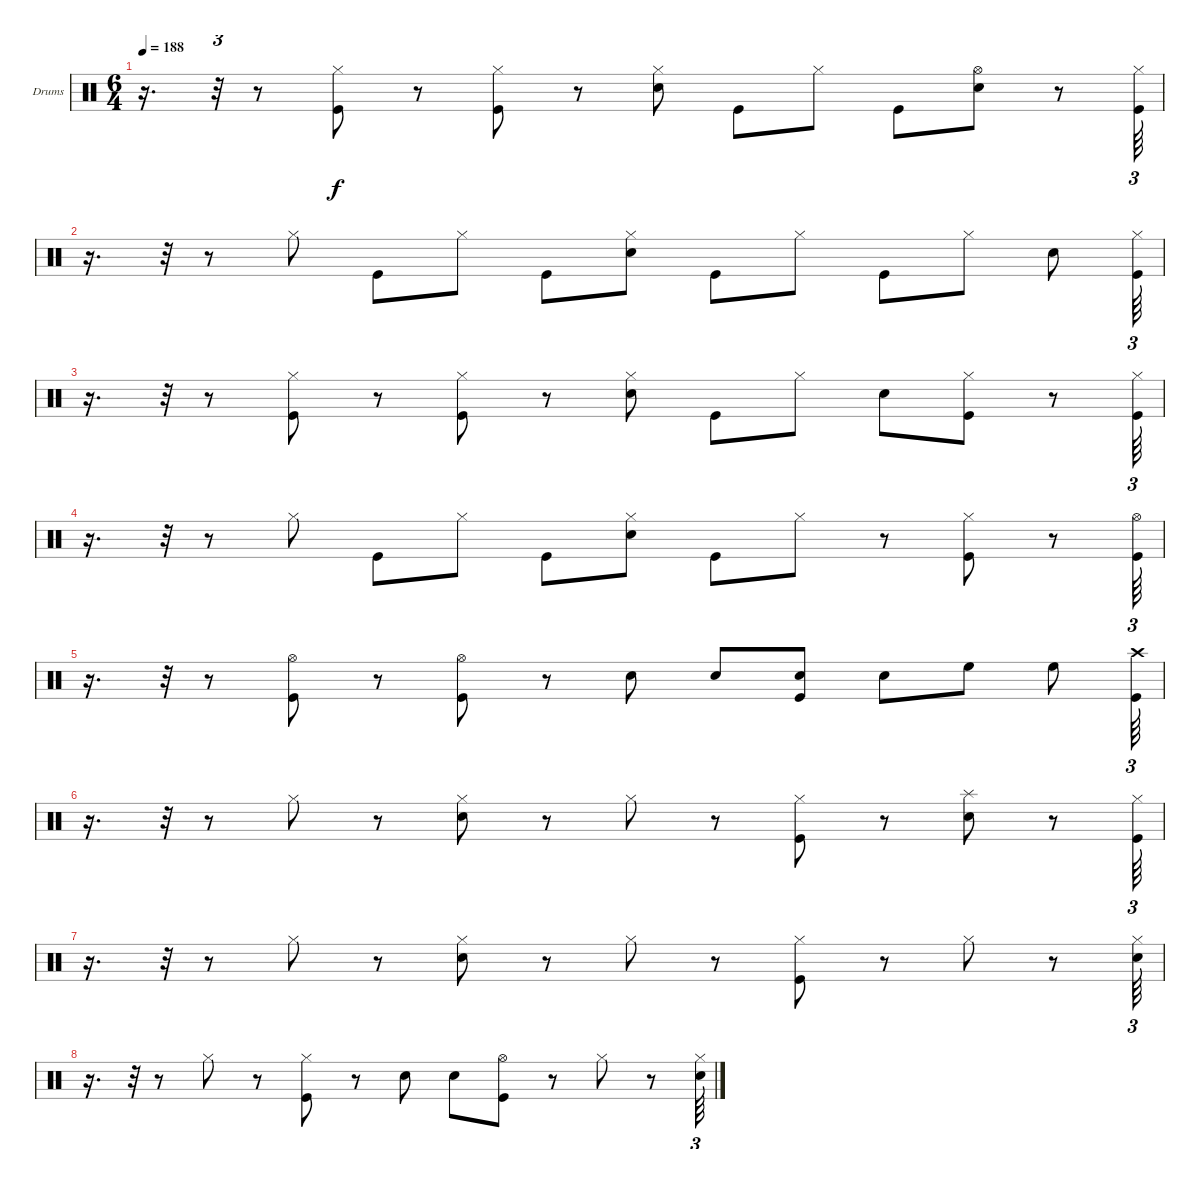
\bracketExtendMode groupsimilarinstruments
\firstSystemTrackNameOrientation horizontal
\otherSystemsTrackNameOrientation horizontal
\track ("Drumkit" "Drums") {instrument percussion}
\staff {score}
\articulation defaults
\ts (6 4)
\tempo 188
\clef neutral
\ks c
r.16{d dy f} r.32{tu (3 2)} r.8 ("Kick (hit)" "Hi-Hat (closed)").8 r.8 ("Kick (hit)" "Hi-Hat (closed)").8 r.8 ("Snare (hit) 2" "Hi-Hat (closed)").8 "Kick (hit)".8 "Hi-Hat (closed)".8 "Kick (hit)".8 ("Snare (hit) 2" "Hi-Hat (open)").8 r.8 ("Kick (hit)" "Hi-Hat (closed)").64{tu (3 2)} |
r.16{d} r.32{tu (3 2)} r.8 "Hi-Hat (closed)".8 "Kick (hit)".8 "Hi-Hat (closed)".8 "Kick (hit)".8 ("Snare (hit) 2" "Hi-Hat (closed)").8 "Kick (hit)".8 "Hi-Hat (closed)".8 "Kick (hit)".8 "Hi-Hat (closed)".8 "Snare (hit) 2".8 ("Kick (hit)" "Hi-Hat (closed)").64{tu (3 2)} |
r.16{d} r.32{tu (3 2)} r.8 ("Kick (hit)" "Hi-Hat (closed)").8 r.8 ("Kick (hit)" "Hi-Hat (closed)").8 r.8 ("Snare (hit) 2" "Hi-Hat (closed)").8 "Kick (hit)".8 "Hi-Hat (closed)".8 "Snare (hit) 2".8 ("Kick (hit)" "Hi-Hat (closed)").8 r.8 ("Kick (hit)" "Hi-Hat (closed)").64{tu (3 2)} |
r.16{d} r.32{tu (3 2)} r.8 "Hi-Hat (closed)".8 "Kick (hit)".8 "Hi-Hat (closed)".8 "Kick (hit)".8 ("Snare (hit) 2" "Hi-Hat (closed)").8 "Kick (hit)".8 "Hi-Hat (closed)".8 r.8 ("Kick (hit)" "Hi-Hat (closed)").8 r.8 ("Kick (hit)" "Hi-Hat (open)").64{tu (3 2)} |
r.16{d} r.32{tu (3 2)} r.8 ("Hi-Hat (open)" "Kick (hit)").8 r.8 ("Kick (hit)" "Hi-Hat (open)").8 r.8 "Snare (hit) 2".8 "Snare (hit) 2".8 ("Snare (hit) 2" "Kick (hit)").8 "Snare (hit) 2".8 "High Floor Tom (hit)".8 "High Floor Tom (hit)".8 ("Kick (hit)" "Crash high (hit)").64{tu (3 2)} |
r.16{d} r.32{tu (3 2)} r.8 "Hi-Hat (closed)".8 r.8 ("Snare (hit) 2" "Hi-Hat (closed)").8 r.8 "Hi-Hat (closed)".8 r.8 ("Kick (hit)" "Hi-Hat (closed)").8 r.8 ("Snare (hit) 2" "Splash (hit)").8 r.8 ("Kick (hit)" "Hi-Hat (closed)").64{tu (3 2)} |
r.16{d} r.32{tu (3 2)} r.8 "Hi-Hat (closed)".8 r.8 ("Snare (hit) 2" "Hi-Hat (closed)").8 r.8 "Hi-Hat (closed)".8 r.8 ("Kick (hit)" "Hi-Hat (closed)").8 r.8 "Hi-Hat (closed)".8 r.8 ("Snare (hit) 2" "Hi-Hat (closed)").64{tu (3 2)} |
r.16{d} r.32{tu (3 2)} r.8 "Hi-Hat (closed)".8 r.8 ("Kick (hit)" "Hi-Hat (closed)").8 r.8 "Snare (hit) 2".8 "Snare (hit) 2".8 ("Kick (hit)" "Hi-Hat (open)").8 r.8 "Hi-Hat (closed)".8 r.8 ("Hi-Hat (closed)" "Snare (hit) 2").64{tu (3 2)}
